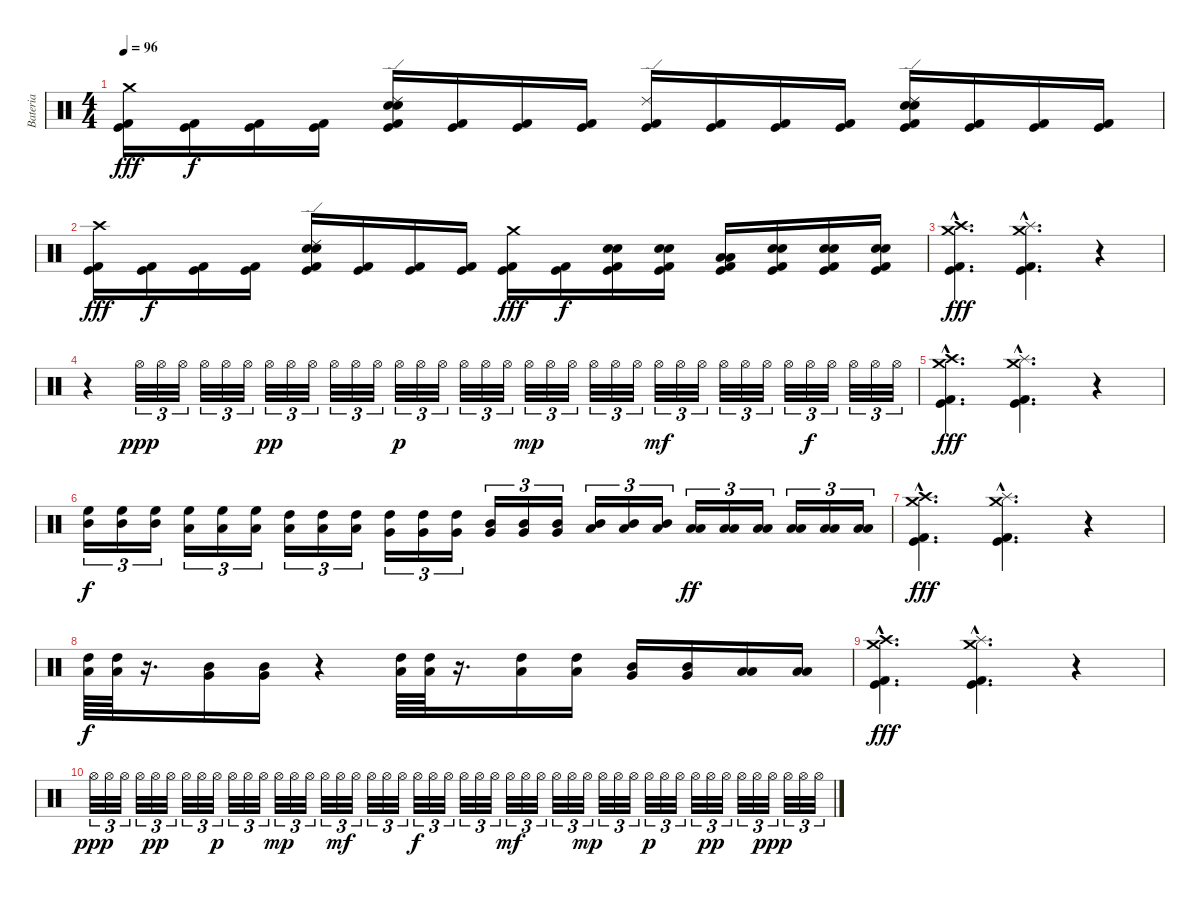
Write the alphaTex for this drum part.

\track ("Bateria" "Bateria") {instrument percussion}
\staff {score}
\articulation defaults
\ts (4 4)
\tempo 96
\clef neutral
\ks c
("Crash medium (hit)" "Kick (hit) 2" "Kick (hit)").16{dy fff} ("Kick (hit) 2" "Kick (hit)").16{dy f} ("Kick (hit) 2" "Kick (hit)").16 ("Kick (hit) 2" "Kick (hit)").16 ("Ride (edge) 2" "Electric Snare (hit)" "Snare (hit) 2" "Kick (hit) 2" "Kick (hit)").16 ("Kick (hit) 2" "Kick (hit)").16 ("Kick (hit) 2" "Kick (hit)").16 ("Kick (hit) 2" "Kick (hit)").16 ("Ride (edge) 2" "Kick (hit) 2" "Kick (hit)").16 ("Kick (hit) 2" "Kick (hit)").16 ("Kick (hit) 2" "Kick (hit)").16 ("Kick (hit) 2" "Kick (hit)").16 ("Ride (edge) 2" "Electric Snare (hit)" "Snare (hit) 2" "Kick (hit) 2" "Kick (hit)").16 ("Kick (hit) 2" "Kick (hit)").16 ("Kick (hit) 2" "Kick (hit)").16 ("Kick (hit) 2" "Kick (hit)").16 |
("Crash high (hit)" "Kick (hit) 2" "Kick (hit)").16{dy fff} ("Kick (hit) 2" "Kick (hit)").16{dy f} ("Kick (hit) 2" "Kick (hit)").16 ("Kick (hit) 2" "Kick (hit)").16 ("Ride (edge) 2" "Electric Snare (hit)" "Snare (hit) 2" "Kick (hit) 2" "Kick (hit)").16 ("Kick (hit) 2" "Kick (hit)").16 ("Kick (hit) 2" "Kick (hit)").16 ("Kick (hit) 2" "Kick (hit)").16 ("Crash medium (hit)" "Kick (hit) 2" "Kick (hit)").16{dy fff} ("Kick (hit) 2" "Kick (hit)").16{dy f} ("Electric Snare (hit)" "Snare (hit) 2" "Kick (hit) 2" "Kick (hit)").16 ("Electric Snare (hit)" "Snare (hit) 2" "Kick (hit) 2" "Kick (hit)").16 ("Low Tom (hit)" "Low Floor Tom (hit)" "Kick (hit) 2" "Kick (hit)").16 ("Electric Snare (hit)" "Snare (hit) 2" "Kick (hit) 2" "Kick (hit)").16 ("Electric Snare (hit)" "Snare (hit) 2" "Kick (hit) 2" "Kick (hit)").16 ("Electric Snare (hit)" "Snare (hit) 2" "Kick (hit) 2" "Kick (hit)").16 |
("Crash high (hit)"{hac} "Crash medium (hit)"{hac} "Kick (hit) 2"{hac} "Kick (hit)"{hac}).4{d dy fff} ("Crash medium (hit)"{hac} "Splash (hit)"{hac} "Kick (hit) 2"{hac} "Kick (hit)"{hac}).4{d} r.4 |
r.4 "Hi-Hat (open)".32{tu (3 2) dy ppp} "Hi-Hat (open)".32{tu (3 2)} "Hi-Hat (open)".32{tu (3 2)} "Hi-Hat (open)".32{tu (3 2)} "Hi-Hat (open)".32{tu (3 2)} "Hi-Hat (open)".32{tu (3 2)} "Hi-Hat (open)".32{tu (3 2) dy pp} "Hi-Hat (open)".32{tu (3 2)} "Hi-Hat (open)".32{tu (3 2)} "Hi-Hat (open)".32{tu (3 2)} "Hi-Hat (open)".32{tu (3 2)} "Hi-Hat (open)".32{tu (3 2)} "Hi-Hat (open)".32{tu (3 2) dy p} "Hi-Hat (open)".32{tu (3 2)} "Hi-Hat (open)".32{tu (3 2)} "Hi-Hat (open)".32{tu (3 2)} "Hi-Hat (open)".32{tu (3 2)} "Hi-Hat (open)".32{tu (3 2)} "Hi-Hat (open)".32{tu (3 2) dy mp} "Hi-Hat (open)".32{tu (3 2)} "Hi-Hat (open)".32{tu (3 2)} "Hi-Hat (open)".32{tu (3 2)} "Hi-Hat (open)".32{tu (3 2)} "Hi-Hat (open)".32{tu (3 2)} "Hi-Hat (open)".32{tu (3 2) dy mf} "Hi-Hat (open)".32{tu (3 2)} "Hi-Hat (open)".32{tu (3 2)} "Hi-Hat (open)".32{tu (3 2)} "Hi-Hat (open)".32{tu (3 2)} "Hi-Hat (open)".32{tu (3 2)} "Hi-Hat (open)".32{tu (3 2)} "Hi-Hat (open)".32{tu (3 2) dy f} "Hi-Hat (open)".32{tu (3 2)} "Hi-Hat (open)".32{tu (3 2)} "Hi-Hat (open)".32{tu (3 2)} "Hi-Hat (open)".32{tu (3 2)} |
("Crash high (hit)"{hac} "Crash medium (hit)"{hac} "Kick (hit) 2"{hac} "Kick (hit)"{hac}).4{d dy fff} ("Crash medium (hit)"{hac} "Splash (hit)"{hac} "Kick (hit) 2"{hac} "Kick (hit)"{hac}).4{d} r.4 |
("High Floor Tom (hit)" "Mid Tom (hit)").16{tu (3 2) dy f} ("High Floor Tom (hit)" "Mid Tom (hit)").16{tu (3 2)} ("High Floor Tom (hit)" "Mid Tom (hit)").16{tu (3 2)} ("High Floor Tom (hit)" "Low Tom (hit)").16{tu (3 2)} ("High Floor Tom (hit)" "Low Tom (hit)").16{tu (3 2)} ("High Floor Tom (hit)" "Low Tom (hit)").16{tu (3 2)} ("High Tom (hit)" "Low Tom (hit)").16{tu (3 2)} ("High Tom (hit)" "Low Tom (hit)").16{tu (3 2)} ("High Tom (hit)" "Low Tom (hit)").16{tu (3 2)} ("High Tom (hit)" "Very Low Tom (hit)").16{tu (3 2)} ("High Tom (hit)" "Very Low Tom (hit)").16{tu (3 2)} ("High Tom (hit)" "Very Low Tom (hit)").16{tu (3 2)} ("Mid Tom (hit)" "Very Low Tom (hit)").16{tu (3 2)} ("Mid Tom (hit)" "Very Low Tom (hit)").16{tu (3 2)} ("Mid Tom (hit)" "Very Low Tom (hit)").16{tu (3 2)} ("Mid Tom (hit)" "Low Floor Tom (hit)").16{tu (3 2)} ("Mid Tom (hit)" "Low Floor Tom (hit)").16{tu (3 2)} ("Mid Tom (hit)" "Low Floor Tom (hit)").16{tu (3 2)} ("Low Tom (hit)" "Low Floor Tom (hit)").16{tu (3 2) dy ff} ("Low Tom (hit)" "Low Floor Tom (hit)").16{tu (3 2)} ("Low Tom (hit)" "Low Floor Tom (hit)").16{tu (3 2)} ("Low Tom (hit)" "Low Floor Tom (hit)").16{tu (3 2)} ("Low Tom (hit)" "Low Floor Tom (hit)").16{tu (3 2)} ("Low Tom (hit)" "Low Floor Tom (hit)").16{tu (3 2)} |
("Crash high (hit)"{hac} "Crash medium (hit)"{hac} "Kick (hit) 2"{hac} "Kick (hit)"{hac}).4{d dy fff} ("Crash medium (hit)"{hac} "Splash (hit)"{hac} "Kick (hit) 2"{hac} "Kick (hit)"{hac}).4{d} r.4 |
("High Tom (hit)" "Low Tom (hit)").64{dy f} ("High Tom (hit)" "Low Tom (hit)").64 r.16{d} ("Mid Tom (hit)" "Very Low Tom (hit)").16 ("Mid Tom (hit)" "Very Low Tom (hit)").16 r.4 ("High Tom (hit)" "Low Tom (hit)").64 ("High Tom (hit)" "Low Tom (hit)").64 r.16{d} ("High Tom (hit)" "Low Tom (hit)").16 ("High Tom (hit)" "Low Tom (hit)").16 ("Mid Tom (hit)" "Very Low Tom (hit)").16 ("Mid Tom (hit)" "Very Low Tom (hit)").16 ("Low Tom (hit)" "Low Floor Tom (hit)").16 ("Low Tom (hit)" "Low Floor Tom (hit)").16 |
("Crash high (hit)"{hac} "Crash medium (hit)"{hac} "Kick (hit) 2"{hac} "Kick (hit)"{hac}).4{d dy fff} ("Crash medium (hit)"{hac} "Splash (hit)"{hac} "Kick (hit) 2"{hac} "Kick (hit)"{hac}).4{d} r.4 |
"Hi-Hat (open)".32{tu (3 2) dy ppp} "Hi-Hat (open)".32{tu (3 2)} "Hi-Hat (open)".32{tu (3 2)} "Hi-Hat (open)".32{tu (3 2)} "Hi-Hat (open)".32{tu (3 2) dy pp} "Hi-Hat (open)".32{tu (3 2)} "Hi-Hat (open)".32{tu (3 2)} "Hi-Hat (open)".32{tu (3 2)} "Hi-Hat (open)".32{tu (3 2) dy p} "Hi-Hat (open)".32{tu (3 2)} "Hi-Hat (open)".32{tu (3 2)} "Hi-Hat (open)".32{tu (3 2)} "Hi-Hat (open)".32{tu (3 2) dy mp} "Hi-Hat (open)".32{tu (3 2)} "Hi-Hat (open)".32{tu (3 2)} "Hi-Hat (open)".32{tu (3 2)} "Hi-Hat (open)".32{tu (3 2) dy mf} "Hi-Hat (open)".32{tu (3 2)} "Hi-Hat (open)".32{tu (3 2)} "Hi-Hat (open)".32{tu (3 2)} "Hi-Hat (open)".32{tu (3 2)} "Hi-Hat (open)".32{tu (3 2) dy f} "Hi-Hat (open)".32{tu (3 2)} "Hi-Hat (open)".32{tu (3 2)} "Hi-Hat (open)".32{tu (3 2)} "Hi-Hat (open)".32{tu (3 2)} "Hi-Hat (open)".32{tu (3 2)} "Hi-Hat (open)".32{tu (3 2) dy mf} "Hi-Hat (open)".32{tu (3 2)} "Hi-Hat (open)".32{tu (3 2)} "Hi-Hat (open)".32{tu (3 2)} "Hi-Hat (open)".32{tu (3 2)} "Hi-Hat (open)".32{tu (3 2) dy mp} "Hi-Hat (open)".32{tu (3 2)} "Hi-Hat (open)".32{tu (3 2)} "Hi-Hat (open)".32{tu (3 2)} "Hi-Hat (open)".32{tu (3 2) dy p} "Hi-Hat (open)".32{tu (3 2)} "Hi-Hat (open)".32{tu (3 2)} "Hi-Hat (open)".32{tu (3 2)} "Hi-Hat (open)".32{tu (3 2) dy pp} "Hi-Hat (open)".32{tu (3 2)} "Hi-Hat (open)".32{tu (3 2)} "Hi-Hat (open)".32{tu (3 2)} "Hi-Hat (open)".32{tu (3 2) dy ppp} "Hi-Hat (open)".32{tu (3 2)} "Hi-Hat (open)".32{tu (3 2)} "Hi-Hat (open)".32{tu (3 2)}
